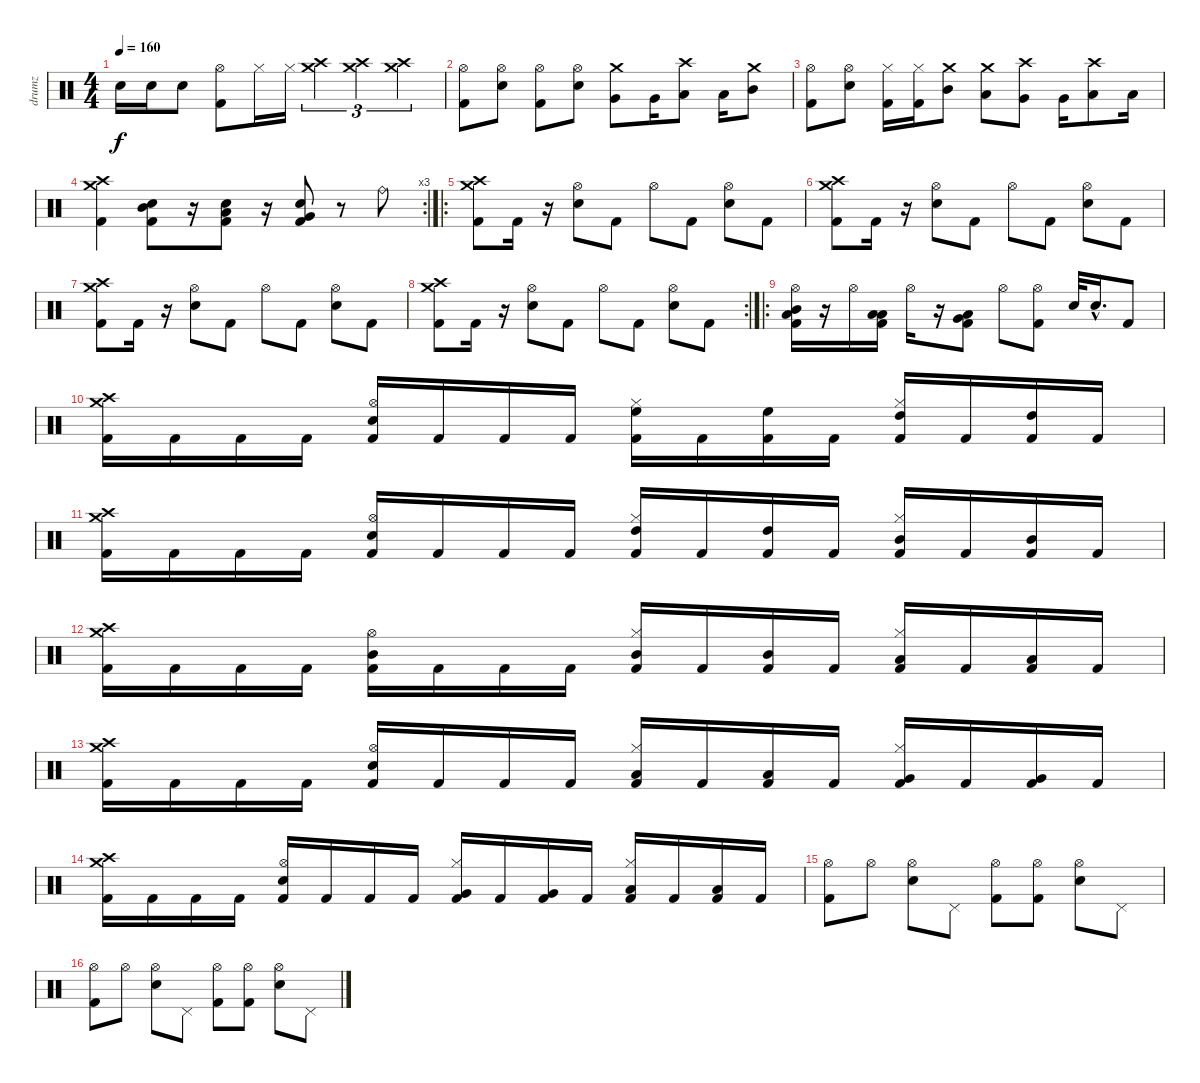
\track ("drumz" "drumz") {instrument percussion}
\staff {score}
\articulation defaults
\ts (4 4)
\tempo 160
\clef neutral
\ks c "Snare (hit) 2".16{dy f} "Snare (hit) 2".16 "Snare (hit) 2".8
("Hi-Hat (open)" "Kick (hit) 2").8 "Hi-Hat (closed)".16 "Hi-Hat (closed)".16 ("Crash medium (hit)" "Crash high (hit)").4{tu (3 2)} ("Crash medium (hit)" "Crash high (hit)").4{tu (3 2)} ("Crash medium (hit)" "Crash high (hit)").4{tu (3 2)} |
("Hi-Hat (open)" "Kick (hit) 2").8 ("Hi-Hat (open)" "Snare (hit) 2").8 ("Hi-Hat (open)" "Kick (hit) 2").8 ("Hi-Hat (open)" "Snare (hit) 2").8 ("Crash medium (hit)" "Very Low Tom (hit)").8 "Very Low Tom (hit)".16 ("Crash high (hit)" "Low Tom (hit)").8 "Low Tom (hit)".16 ("Crash medium (hit)" "Mid Tom (hit)").8 |
("Hi-Hat (open)" "Kick (hit) 2").8 ("Hi-Hat (open)" "Snare (hit) 2").8 ("Hi-Hat (closed)" "Kick (hit) 2").16 ("Hi-Hat (closed)" "Kick (hit) 2").16 ("Crash medium (hit)" "Mid Tom (hit)").8 ("Crash medium (hit)" "Low Tom (hit)").8 ("Crash high (hit)" "Very Low Tom (hit)").8 "Very Low Tom (hit)".16 ("Crash high (hit)" "Low Floor Tom (hit)").8 "Low Floor Tom (hit)".16 |
\rc 3
("Crash medium (hit)" "Crash high (hit)" "Kick (hit) 2").4 ("Mid Tom (hit)" "Snare (hit) 2" "Kick (hit) 2").8 r.16 ("Low Tom (hit)" "Snare (hit) 2" "Kick (hit) 2").8 r.16 ("Very Low Tom (hit)" "Snare (hit) 2" "Kick (hit) 2").8 r.8 "Ride (bell)".8 |
\ro
("Crash medium (hit)" "Crash high (hit)" "Kick (hit) 2").8 "Kick (hit) 2".16 r.16 ("Hi-Hat (open)" "Snare (hit) 2").8 "Kick (hit) 2".8 "Hi-Hat (open)".8 "Kick (hit) 2".8 ("Hi-Hat (open)" "Snare (hit) 2").8 "Kick (hit) 2".8 |
("Crash medium (hit)" "Crash high (hit)" "Kick (hit) 2").8 "Kick (hit) 2".16 r.16 ("Hi-Hat (open)" "Snare (hit) 2").8 "Kick (hit) 2".8 "Hi-Hat (open)".8 "Kick (hit) 2".8 ("Hi-Hat (open)" "Snare (hit) 2").8 "Kick (hit) 2".8 |
("Crash medium (hit)" "Crash high (hit)" "Kick (hit) 2").8 "Kick (hit) 2".16 r.16 ("Hi-Hat (open)" "Snare (hit) 2").8 "Kick (hit) 2".8 "Hi-Hat (open)".8 "Kick (hit) 2".8 ("Hi-Hat (open)" "Snare (hit) 2").8 "Kick (hit) 2".8 |
\rc 2
("Crash medium (hit)" "Crash high (hit)" "Kick (hit) 2").8 "Kick (hit) 2".16 r.16 ("Hi-Hat (open)" "Snare (hit) 2").8 "Kick (hit) 2".8 "Hi-Hat (open)".8 "Kick (hit) 2".8 ("Hi-Hat (open)" "Snare (hit) 2").8 "Kick (hit) 2".8 |
\ro
("Hi-Hat (open)" "Mid Tom (hit)" "Low Floor Tom (hit)" "Kick (hit) 2").16 r.16 "Hi-Hat (open)".16 ("Low Tom (hit)" "Low Floor Tom (hit)" "Kick (hit) 2").16 "Hi-Hat (open)".16 r.16 ("Very Low Tom (hit)" "Low Floor Tom (hit)" "Kick (hit) 2").8 "Hi-Hat (open)".8 ("Hi-Hat (open)" "Kick (hit) 2").8 "Snare (hit) 2".32 "Snare (hit) 2"{hac}.16{d} "Kick (hit) 2".8 |
("Crash medium (hit)" "Crash high (hit)" "Kick (hit) 2").16 "Kick (hit) 2".16 "Kick (hit) 2".16 "Kick (hit) 2".16 ("Hi-Hat (open)" "Snare (hit) 2" "Kick (hit) 2").16 "Kick (hit) 2".16 "Kick (hit) 2".16 "Kick (hit) 2".16 ("Hi-Hat (closed)" "High Floor Tom (hit)" "Kick (hit) 2").16 "Kick (hit) 2".16 ("High Floor Tom (hit)" "Kick (hit) 2").16 "Kick (hit) 2".16 ("Hi-Hat (closed)" "High Tom (hit)" "Kick (hit) 2").16 "Kick (hit) 2".16 ("High Tom (hit)" "Kick (hit) 2").16 "Kick (hit) 2".16 |
("Crash medium (hit)" "Crash high (hit)" "Kick (hit) 2").16 "Kick (hit) 2".16 "Kick (hit) 2".16 "Kick (hit) 2".16 ("Hi-Hat (open)" "Snare (hit) 2" "Kick (hit) 2").16 "Kick (hit) 2".16 "Kick (hit) 2".16 "Kick (hit) 2".16 ("Hi-Hat (closed)" "High Tom (hit)" "Kick (hit) 2").16 "Kick (hit) 2".16 ("High Tom (hit)" "Kick (hit) 2").16 "Kick (hit) 2".16 ("Hi-Hat (closed)" "Mid Tom (hit)" "Kick (hit) 2").16 "Kick (hit) 2".16 ("Mid Tom (hit)" "Kick (hit) 2").16 "Kick (hit) 2".16 |
("Crash medium (hit)" "Crash high (hit)" "Kick (hit) 2").16 "Kick (hit) 2".16 "Kick (hit) 2".16 "Kick (hit) 2".16 ("Hi-Hat (open)" "Mid Tom (hit)" "Kick (hit) 2").16 "Kick (hit) 2".16 "Kick (hit) 2".16 "Kick (hit) 2".16 ("Hi-Hat (closed)" "Mid Tom (hit)" "Kick (hit) 2").16 "Kick (hit) 2".16 ("Mid Tom (hit)" "Kick (hit) 2").16 "Kick (hit) 2".16 ("Hi-Hat (closed)" "Low Tom (hit)" "Kick (hit) 2").16 "Kick (hit) 2".16 ("Low Tom (hit)" "Kick (hit) 2").16 "Kick (hit) 2".16 |
("Crash medium (hit)" "Crash high (hit)" "Kick (hit) 2").16 "Kick (hit) 2".16 "Kick (hit) 2".16 "Kick (hit) 2".16 ("Hi-Hat (open)" "Snare (hit) 2" "Kick (hit) 2").16 "Kick (hit) 2".16 "Kick (hit) 2".16 "Kick (hit) 2".16 ("Hi-Hat (closed)" "Low Tom (hit)" "Kick (hit) 2").16 "Kick (hit) 2".16 ("Low Tom (hit)" "Kick (hit) 2").16 "Kick (hit) 2".16 ("Hi-Hat (closed)" "Very Low Tom (hit)" "Kick (hit) 2").16 "Kick (hit) 2".16 ("Very Low Tom (hit)" "Kick (hit) 2").16 "Kick (hit) 2".16 |
("Crash medium (hit)" "Crash high (hit)" "Kick (hit) 2").16 "Kick (hit) 2".16 "Kick (hit) 2".16 "Kick (hit) 2".16 ("Hi-Hat (open)" "Snare (hit) 2" "Kick (hit) 2").16 "Kick (hit) 2".16 "Kick (hit) 2".16 "Kick (hit) 2".16 ("Hi-Hat (closed)" "Very Low Tom (hit)" "Kick (hit) 2").16 "Kick (hit) 2".16 ("Very Low Tom (hit)" "Kick (hit) 2").16 "Kick (hit) 2".16 ("Hi-Hat (closed)" "Low Floor Tom (hit)" "Kick (hit) 2").16 "Kick (hit) 2".16 ("Low Floor Tom (hit)" "Kick (hit) 2").16 "Kick (hit) 2".16 |
("Hi-Hat (open)" "Kick (hit) 2").8 "Hi-Hat (open)".8 ("Hi-Hat (open)" "Snare (hit) 2").8 "Pedal Hi-Hat (hit)".8 ("Hi-Hat (open)" "Kick (hit) 2").8 ("Hi-Hat (open)" "Kick (hit) 2").8 ("Hi-Hat (open)" "Snare (hit) 2").8 "Pedal Hi-Hat (hit)".8 |
("Hi-Hat (open)" "Kick (hit) 2").8 "Hi-Hat (open)".8 ("Hi-Hat (open)" "Snare (hit) 2").8 "Pedal Hi-Hat (hit)".8 ("Hi-Hat (open)" "Kick (hit) 2").8 ("Hi-Hat (open)" "Kick (hit) 2").8 ("Hi-Hat (open)" "Snare (hit) 2").8 "Pedal Hi-Hat (hit)".8
